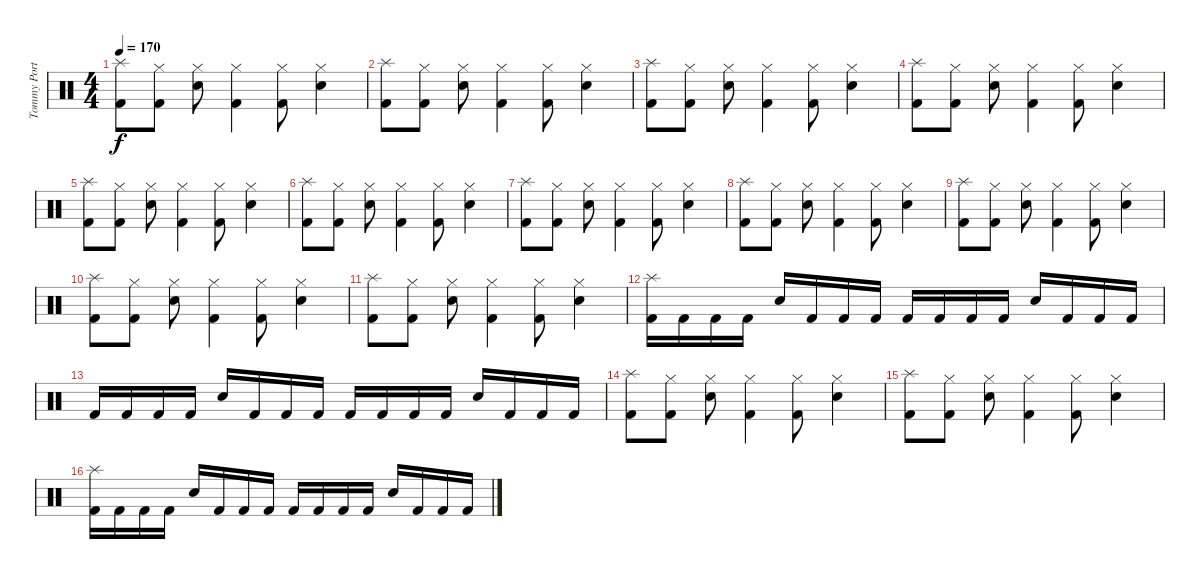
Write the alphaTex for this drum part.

\track ("Tommy Portimo" "Tommy Port") {instrument percussion}
\staff {score}
\articulation defaults
\ts (4 4)
\tempo 170
\clef neutral
\ks c
("Splash (hit)" "Kick (hit) 2").8{dy f} ("Kick (hit) 2" "Hi-Hat (closed)").8 ("Electric Snare (hit)" "Hi-Hat (closed)").8 ("Kick (hit) 2" "Hi-Hat (closed)").4 ("Kick (hit) 2" "Hi-Hat (closed)").8 ("Electric Snare (hit)" "Hi-Hat (closed)").4 |
("Splash (hit)" "Kick (hit) 2").8 ("Kick (hit) 2" "Hi-Hat (closed)").8 ("Electric Snare (hit)" "Hi-Hat (closed)").8 ("Kick (hit) 2" "Hi-Hat (closed)").4 ("Kick (hit) 2" "Hi-Hat (closed)").8 ("Electric Snare (hit)" "Hi-Hat (closed)").4 |
("Splash (hit)" "Kick (hit) 2").8 ("Kick (hit) 2" "Hi-Hat (closed)").8 ("Electric Snare (hit)" "Hi-Hat (closed)").8 ("Kick (hit) 2" "Hi-Hat (closed)").4 ("Kick (hit) 2" "Hi-Hat (closed)").8 ("Electric Snare (hit)" "Hi-Hat (closed)").4 |
("Splash (hit)" "Kick (hit) 2").8 ("Kick (hit) 2" "Hi-Hat (closed)").8 ("Electric Snare (hit)" "Hi-Hat (closed)").8 ("Kick (hit) 2" "Hi-Hat (closed)").4 ("Kick (hit) 2" "Hi-Hat (closed)").8 ("Electric Snare (hit)" "Hi-Hat (closed)").4 |
("Splash (hit)" "Kick (hit) 2").8 ("Kick (hit) 2" "Hi-Hat (closed)").8 ("Electric Snare (hit)" "Hi-Hat (closed)").8 ("Kick (hit) 2" "Hi-Hat (closed)").4 ("Kick (hit) 2" "Hi-Hat (closed)").8 ("Electric Snare (hit)" "Hi-Hat (closed)").4 |
("Splash (hit)" "Kick (hit) 2").8 ("Kick (hit) 2" "Hi-Hat (closed)").8 ("Electric Snare (hit)" "Hi-Hat (closed)").8 ("Kick (hit) 2" "Hi-Hat (closed)").4 ("Kick (hit) 2" "Hi-Hat (closed)").8 ("Electric Snare (hit)" "Hi-Hat (closed)").4 |
("Splash (hit)" "Kick (hit) 2").8 ("Kick (hit) 2" "Hi-Hat (closed)").8 ("Electric Snare (hit)" "Hi-Hat (closed)").8 ("Kick (hit) 2" "Hi-Hat (closed)").4 ("Kick (hit) 2" "Hi-Hat (closed)").8 ("Electric Snare (hit)" "Hi-Hat (closed)").4 |
("Splash (hit)" "Kick (hit) 2").8 ("Kick (hit) 2" "Hi-Hat (closed)").8 ("Electric Snare (hit)" "Hi-Hat (closed)").8 ("Kick (hit) 2" "Hi-Hat (closed)").4 ("Kick (hit) 2" "Hi-Hat (closed)").8 ("Electric Snare (hit)" "Hi-Hat (closed)").4 |
("Splash (hit)" "Kick (hit) 2").8 ("Kick (hit) 2" "Hi-Hat (closed)").8 ("Electric Snare (hit)" "Hi-Hat (closed)").8 ("Kick (hit) 2" "Hi-Hat (closed)").4 ("Kick (hit) 2" "Hi-Hat (closed)").8 ("Electric Snare (hit)" "Hi-Hat (closed)").4 |
("Splash (hit)" "Kick (hit) 2").8 ("Kick (hit) 2" "Hi-Hat (closed)").8 ("Electric Snare (hit)" "Hi-Hat (closed)").8 ("Kick (hit) 2" "Hi-Hat (closed)").4 ("Kick (hit) 2" "Hi-Hat (closed)").8 ("Electric Snare (hit)" "Hi-Hat (closed)").4 |
("Splash (hit)" "Kick (hit) 2").8 ("Kick (hit) 2" "Hi-Hat (closed)").8 ("Electric Snare (hit)" "Hi-Hat (closed)").8 ("Kick (hit) 2" "Hi-Hat (closed)").4 ("Kick (hit) 2" "Hi-Hat (closed)").8 ("Electric Snare (hit)" "Hi-Hat (closed)").4 |
("Splash (hit)" "Kick (hit) 2").16 "Kick (hit) 2".16 "Kick (hit) 2".16 "Kick (hit) 2".16 "Electric Snare (hit)".16 "Kick (hit) 2".16 "Kick (hit) 2".16 "Kick (hit) 2".16 "Kick (hit) 2".16 "Kick (hit) 2".16 "Kick (hit) 2".16 "Kick (hit) 2".16 "Electric Snare (hit)".16 "Kick (hit) 2".16 "Kick (hit) 2".16 "Kick (hit) 2".16 |
"Kick (hit) 2".16 "Kick (hit) 2".16 "Kick (hit) 2".16 "Kick (hit) 2".16 "Electric Snare (hit)".16 "Kick (hit) 2".16 "Kick (hit) 2".16 "Kick (hit) 2".16 "Kick (hit) 2".16 "Kick (hit) 2".16 "Kick (hit) 2".16 "Kick (hit) 2".16 "Electric Snare (hit)".16 "Kick (hit) 2".16 "Kick (hit) 2".16 "Kick (hit) 2".16 |
("Splash (hit)" "Kick (hit) 2").8 ("Kick (hit) 2" "Hi-Hat (closed)").8 ("Electric Snare (hit)" "Hi-Hat (closed)").8 ("Kick (hit) 2" "Hi-Hat (closed)").4 ("Kick (hit) 2" "Hi-Hat (closed)").8 ("Electric Snare (hit)" "Hi-Hat (closed)").4 |
("Splash (hit)" "Kick (hit) 2").8 ("Kick (hit) 2" "Hi-Hat (closed)").8 ("Electric Snare (hit)" "Hi-Hat (closed)").8 ("Kick (hit) 2" "Hi-Hat (closed)").4 ("Kick (hit) 2" "Hi-Hat (closed)").8 ("Electric Snare (hit)" "Hi-Hat (closed)").4 |
("Splash (hit)" "Kick (hit) 2").16 "Kick (hit) 2".16 "Kick (hit) 2".16 "Kick (hit) 2".16 "Electric Snare (hit)".16 "Kick (hit) 2".16 "Kick (hit) 2".16 "Kick (hit) 2".16 "Kick (hit) 2".16 "Kick (hit) 2".16 "Kick (hit) 2".16 "Kick (hit) 2".16 "Electric Snare (hit)".16 "Kick (hit) 2".16 "Kick (hit) 2".16 "Kick (hit) 2".16
